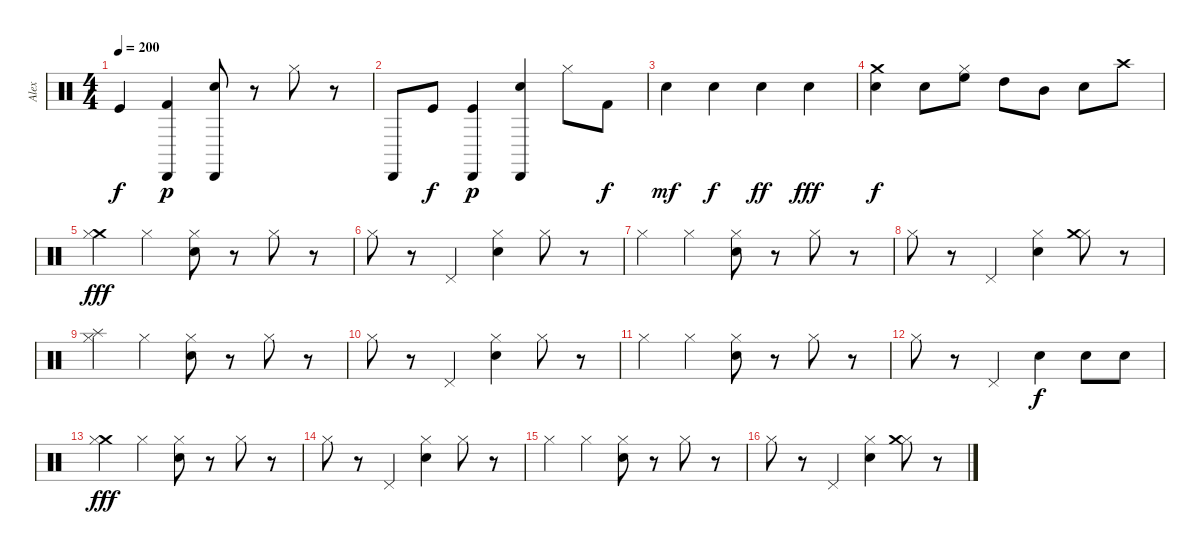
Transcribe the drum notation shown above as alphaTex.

\track ("Alex" "Alex") {instrument percussion}
\staff {score}
\articulation defaults
\ts (4 4)
\tempo 200
\clef neutral
\ks c "Kick (hit)".4{dy f}
("Kick (hit) 2" "Cabasa (hit)").4{dy p} ("Electric Snare (hit)" "Cabasa (hit)").8 r.8 "Hi-Hat (closed)".8 r.8 |
"Cabasa (hit)".8 "Kick (hit)".8{dy f} ("Kick (hit)" "Cabasa (hit)").4{dy p} ("Electric Snare (hit)" "Cabasa (hit)").4 "Hi-Hat (closed)".8 "Kick (hit) 2".8{dy f} |
"Electric Snare (hit)".4{dy mf} "Electric Snare (hit)".4{dy f} "Electric Snare (hit)".4{dy ff} "Electric Snare (hit)".4{dy fff} |
("Electric Snare (hit)" "Crash medium (hit)").4{dy f} "Electric Snare (hit)".8 ("High Floor Tom (hit)" "Hi-Hat (closed)").8 "High Tom (hit)".8 "Mid Tom (hit)".8 "Snare (hit) 2".8 "Crash high (hit)".8 |
("Crash medium (hit)" "Hi-Hat (closed)").4{dy fff} "Hi-Hat (closed)".4 ("Electric Snare (hit)" "Hi-Hat (closed)").8 r.8 "Hi-Hat (closed)".8 r.8 |
"Hi-Hat (closed)".8 r.8 "Pedal Hi-Hat (hit)".4 ("Electric Snare (hit)" "Hi-Hat (closed)").4 "Hi-Hat (closed)".8 r.8 |
"Hi-Hat (closed)".4 "Hi-Hat (closed)".4 ("Electric Snare (hit)" "Hi-Hat (closed)").8 r.8 "Hi-Hat (closed)".8 r.8 |
"Hi-Hat (closed)".8 r.8 "Pedal Hi-Hat (hit)".4 ("Electric Snare (hit)" "Hi-Hat (closed)").4 ("Hi-Hat (closed)" "Crash medium (hit)").8 r.8 |
("Hi-Hat (closed)" "Splash (hit)").4 "Hi-Hat (closed)".4 ("Electric Snare (hit)" "Hi-Hat (closed)").8 r.8 "Hi-Hat (closed)".8 r.8 |
"Hi-Hat (closed)".8 r.8 "Pedal Hi-Hat (hit)".4 ("Electric Snare (hit)" "Hi-Hat (closed)").4 "Hi-Hat (closed)".8 r.8 |
"Hi-Hat (closed)".4 "Hi-Hat (closed)".4 ("Electric Snare (hit)" "Hi-Hat (closed)").8 r.8 "Hi-Hat (closed)".8 r.8 |
"Hi-Hat (closed)".8 r.8 "Pedal Hi-Hat (hit)".4 "Electric Snare (hit)".4{dy f} "Electric Snare (hit)".8 "Snare (hit) 2".8 |
("Crash medium (hit)" "Hi-Hat (closed)").4{dy fff} "Hi-Hat (closed)".4 ("Electric Snare (hit)" "Hi-Hat (closed)").8 r.8 "Hi-Hat (closed)".8 r.8 |
"Hi-Hat (closed)".8 r.8 "Pedal Hi-Hat (hit)".4 ("Electric Snare (hit)" "Hi-Hat (closed)").4 "Hi-Hat (closed)".8 r.8 |
"Hi-Hat (closed)".4 "Hi-Hat (closed)".4 ("Electric Snare (hit)" "Hi-Hat (closed)").8 r.8 "Hi-Hat (closed)".8 r.8 |
"Hi-Hat (closed)".8 r.8 "Pedal Hi-Hat (hit)".4 ("Electric Snare (hit)" "Hi-Hat (closed)").4 ("Hi-Hat (closed)" "Crash medium (hit)").8 r.8
